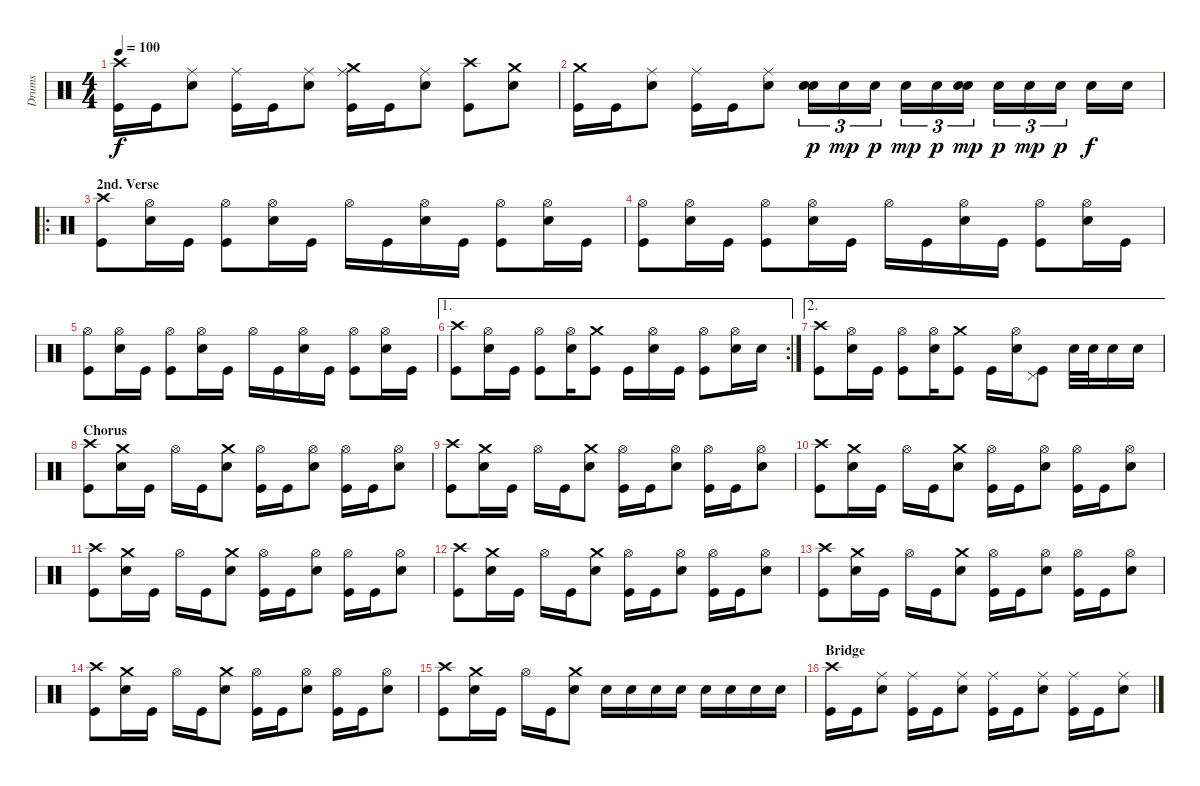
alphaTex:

\track ("Drums" "Drums") {instrument percussion}
\staff {score}
\articulation defaults
\ts (4 4)
\tempo 100
\clef neutral
\ks c
("Crash high (hit)" "Kick (hit)").16{dy f} "Kick (hit)".16 ("Ride (middle)" "Electric Snare (hit)").8 ("Ride (middle)" "Kick (hit)").16 "Kick (hit)".16 ("Ride (middle)" "Electric Snare (hit)").8 ("Crash medium (hit)" "Ride (middle)" "Kick (hit)").16 "Kick (hit)".16 ("Ride (middle)" "Electric Snare (hit)").8 ("Crash high (hit)" "Kick (hit)").8 ("Crash medium (hit)" "Electric Snare (hit)").8 |
("Crash medium (hit)" "Kick (hit)").16 "Kick (hit)".16 ("Ride (middle)" "Electric Snare (hit)").8 ("Ride (middle)" "Kick (hit)").16 "Kick (hit)".16 ("Ride (middle)" "Electric Snare (hit)").8 ("Electric Snare (hit)" "Snare (hit) 2").16{tu (3 2) dy p} "Snare (hit) 2".16{tu (3 2) dy mp} "Snare (hit) 2".16{tu (3 2) dy p} "Snare (hit) 2".16{tu (3 2) dy mp} "Snare (hit) 2".16{tu (3 2) dy p} ("Electric Snare (hit)" "Snare (hit) 2").16{tu (3 2) dy mp} "Snare (hit) 2".16{tu (3 2) dy p} "Snare (hit) 2".16{tu (3 2) dy mp} "Snare (hit) 2".16{tu (3 2) dy p} "Electric Snare (hit)".16{dy f} "Electric Snare (hit)".16 |
\ro
\section ("" "2nd. Verse")
("Crash high (hit)" "Kick (hit)").8 ("Hi-Hat (open)" "Electric Snare (hit)").16 "Kick (hit)".16 ("Hi-Hat (open)" "Kick (hit)").8 ("Hi-Hat (open)" "Electric Snare (hit)").16 "Kick (hit)".16 "Hi-Hat (open)".16 "Kick (hit)".16 ("Hi-Hat (open)" "Electric Snare (hit)").16 "Kick (hit)".16 ("Hi-Hat (open)" "Kick (hit)").8 ("Hi-Hat (open)" "Electric Snare (hit)").16 "Kick (hit)".16 |
("Hi-Hat (open)" "Kick (hit)").8 ("Hi-Hat (open)" "Electric Snare (hit)").16 "Kick (hit)".16 ("Hi-Hat (open)" "Kick (hit)").8 ("Hi-Hat (open)" "Electric Snare (hit)").16 "Kick (hit)".16 "Hi-Hat (open)".16 "Kick (hit)".16 ("Hi-Hat (open)" "Electric Snare (hit)").16 "Kick (hit)".16 ("Hi-Hat (open)" "Kick (hit)").8 ("Hi-Hat (open)" "Electric Snare (hit)").16 "Kick (hit)".16 |
("Hi-Hat (open)" "Kick (hit)").8 ("Hi-Hat (open)" "Electric Snare (hit)").16 "Kick (hit)".16 ("Hi-Hat (open)" "Kick (hit)").8 ("Hi-Hat (open)" "Electric Snare (hit)").16 "Kick (hit)".16 "Hi-Hat (open)".16 "Kick (hit)".16 ("Hi-Hat (open)" "Electric Snare (hit)").16 "Kick (hit)".16 ("Hi-Hat (open)" "Kick (hit)").8 ("Hi-Hat (open)" "Electric Snare (hit)").16 "Kick (hit)".16 |
\ae 1
\rc 2
("Crash high (hit)" "Kick (hit)").8 ("Hi-Hat (open)" "Electric Snare (hit)").16 "Kick (hit)".16 ("Hi-Hat (open)" "Kick (hit)").8 ("Hi-Hat (open)" "Electric Snare (hit)").16 ("Crash medium (hit)" "Kick (hit)").8 "Kick (hit)".16 ("Hi-Hat (open)" "Electric Snare (hit)").16 "Kick (hit)".16 ("Hi-Hat (open)" "Kick (hit)").8 ("Hi-Hat (open)" "Electric Snare (hit)").16 "Electric Snare (hit)".16 |
\ae 2
("Crash high (hit)" "Kick (hit)").8 ("Hi-Hat (open)" "Electric Snare (hit)").16 "Kick (hit)".16 ("Hi-Hat (open)" "Kick (hit)").8 ("Hi-Hat (open)" "Electric Snare (hit)").16 ("Crash medium (hit)" "Kick (hit)").8 "Kick (hit)".16 ("Hi-Hat (open)" "Electric Snare (hit)").16 ("Pedal Hi-Hat (hit)" "Kick (hit)").8 "Electric Snare (hit)".32 "Electric Snare (hit)".32 "Electric Snare (hit)".16 "Electric Snare (hit)".16 |
\section ("" "Chorus")
("Crash high (hit)" "Kick (hit)").8 ("Crash medium (hit)" "Electric Snare (hit)").16 "Kick (hit)".16 "Hi-Hat (open)".16 "Kick (hit)".16 ("Crash medium (hit)" "Electric Snare (hit)").8 ("Hi-Hat (open)" "Kick (hit)").16 "Kick (hit)".16 ("Hi-Hat (open)" "Electric Snare (hit)").8 ("Hi-Hat (open)" "Kick (hit)").16 "Kick (hit)".16 ("Hi-Hat (open)" "Electric Snare (hit)").8 |
("Crash high (hit)" "Kick (hit)").8 ("Crash medium (hit)" "Electric Snare (hit)").16 "Kick (hit)".16 "Hi-Hat (open)".16 "Kick (hit)".16 ("Crash medium (hit)" "Electric Snare (hit)").8 ("Hi-Hat (open)" "Kick (hit)").16 "Kick (hit)".16 ("Hi-Hat (open)" "Electric Snare (hit)").8 ("Hi-Hat (open)" "Kick (hit)").16 "Kick (hit)".16 ("Hi-Hat (open)" "Electric Snare (hit)").8 |
("Crash high (hit)" "Kick (hit)").8 ("Crash medium (hit)" "Electric Snare (hit)").16 "Kick (hit)".16 "Hi-Hat (open)".16 "Kick (hit)".16 ("Crash medium (hit)" "Electric Snare (hit)").8 ("Hi-Hat (open)" "Kick (hit)").16 "Kick (hit)".16 ("Hi-Hat (open)" "Electric Snare (hit)").8 ("Hi-Hat (open)" "Kick (hit)").16 "Kick (hit)".16 ("Hi-Hat (open)" "Electric Snare (hit)").8 |
("Crash high (hit)" "Kick (hit)").8 ("Crash medium (hit)" "Electric Snare (hit)").16 "Kick (hit)".16 "Hi-Hat (open)".16 "Kick (hit)".16 ("Crash medium (hit)" "Electric Snare (hit)").8 ("Hi-Hat (open)" "Kick (hit)").16 "Kick (hit)".16 ("Hi-Hat (open)" "Electric Snare (hit)").8 ("Hi-Hat (open)" "Kick (hit)").16 "Kick (hit)".16 ("Hi-Hat (open)" "Electric Snare (hit)").8 |
("Crash high (hit)" "Kick (hit)").8 ("Crash medium (hit)" "Electric Snare (hit)").16 "Kick (hit)".16 "Hi-Hat (open)".16 "Kick (hit)".16 ("Crash medium (hit)" "Electric Snare (hit)").8 ("Hi-Hat (open)" "Kick (hit)").16 "Kick (hit)".16 ("Hi-Hat (open)" "Electric Snare (hit)").8 ("Hi-Hat (open)" "Kick (hit)").16 "Kick (hit)".16 ("Hi-Hat (open)" "Electric Snare (hit)").8 |
("Crash high (hit)" "Kick (hit)").8 ("Crash medium (hit)" "Electric Snare (hit)").16 "Kick (hit)".16 "Hi-Hat (open)".16 "Kick (hit)".16 ("Crash medium (hit)" "Electric Snare (hit)").8 ("Hi-Hat (open)" "Kick (hit)").16 "Kick (hit)".16 ("Hi-Hat (open)" "Electric Snare (hit)").8 ("Hi-Hat (open)" "Kick (hit)").16 "Kick (hit)".16 ("Hi-Hat (open)" "Electric Snare (hit)").8 |
("Crash high (hit)" "Kick (hit)").8 ("Crash medium (hit)" "Electric Snare (hit)").16 "Kick (hit)".16 "Hi-Hat (open)".16 "Kick (hit)".16 ("Crash medium (hit)" "Electric Snare (hit)").8 ("Hi-Hat (open)" "Kick (hit)").16 "Kick (hit)".16 ("Hi-Hat (open)" "Electric Snare (hit)").8 ("Hi-Hat (open)" "Kick (hit)").16 "Kick (hit)".16 ("Hi-Hat (open)" "Electric Snare (hit)").8 |
("Crash high (hit)" "Kick (hit)").8 ("Crash medium (hit)" "Electric Snare (hit)").16 "Kick (hit)".16 "Hi-Hat (open)".16 "Kick (hit)".16 ("Crash medium (hit)" "Electric Snare (hit)").8 "Electric Snare (hit)".16 "Electric Snare (hit)".16 "Electric Snare (hit)".16 "Electric Snare (hit)".16 "Electric Snare (hit)".16 "Electric Snare (hit)".16 "Electric Snare (hit)".16 "Electric Snare (hit)".16 |
\section ("" "Bridge")
("Crash high (hit)" "Kick (hit)").16 "Kick (hit)".16 ("Ride (middle)" "Electric Snare (hit)").8 ("Ride (middle)" "Kick (hit)").16 "Kick (hit)".16 ("Ride (middle)" "Electric Snare (hit)").8 ("Ride (middle)" "Kick (hit)").16 "Kick (hit)".16 ("Ride (middle)" "Electric Snare (hit)").8 ("Ride (middle)" "Kick (hit)").16 "Kick (hit)".16 ("Ride (middle)" "Electric Snare (hit)").8
